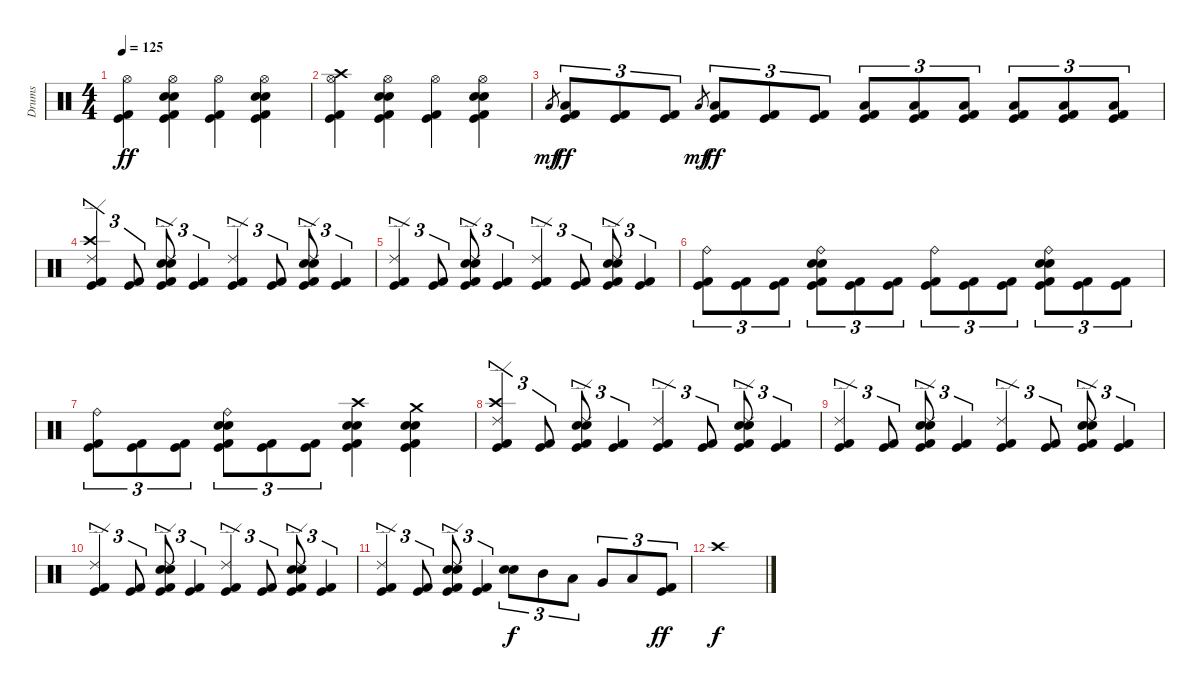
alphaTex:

\track ("Drums" "Drums") {instrument percussion}
\staff {score}
\articulation defaults
\ts (4 4)
\tempo 125
\clef neutral
\ks c
("Hi-Hat (open)" "Kick (hit) 2" "Kick (hit)").4{dy ff} ("Hi-Hat (open)" "Snare (hit) 2" "Electric Snare (hit)" "Kick (hit) 2" "Kick (hit)").4 ("Hi-Hat (open)" "Kick (hit) 2" "Kick (hit)").4 ("Hi-Hat (open)" "Snare (hit) 2" "Electric Snare (hit)" "Kick (hit) 2" "Kick (hit)").4 |
("Hi-Hat (open)" "Crash high (hit)" "Kick (hit) 2" "Kick (hit)").4 ("Hi-Hat (open)" "Snare (hit) 2" "Electric Snare (hit)" "Kick (hit) 2" "Kick (hit)").4 ("Hi-Hat (open)" "Kick (hit) 2" "Kick (hit)").4 ("Hi-Hat (open)" "Snare (hit) 2" "Electric Snare (hit)" "Kick (hit) 2" "Kick (hit)").4 |
"Low Tom (hit)".8{gr dy mf} ("Low Tom (hit)" "Kick (hit) 2" "Kick (hit)").8{tu (3 2) dy ff} ("Kick (hit) 2" "Kick (hit)").8{tu (3 2)} ("Kick (hit) 2" "Kick (hit)").8{tu (3 2)} "Low Tom (hit)".8{gr dy mf} ("Low Tom (hit)" "Kick (hit) 2" "Kick (hit)").8{tu (3 2) dy ff} ("Kick (hit) 2" "Kick (hit)").8{tu (3 2)} ("Kick (hit) 2" "Kick (hit)").8{tu (3 2)} ("Low Tom (hit)" "Kick (hit) 2" "Kick (hit)").8{tu (3 2)} ("Low Tom (hit)" "Kick (hit) 2" "Kick (hit)").8{tu (3 2)} ("Low Tom (hit)" "Kick (hit) 2" "Kick (hit)").8{tu (3 2)} ("Low Tom (hit)" "Kick (hit) 2" "Kick (hit)").8{tu (3 2)} ("Low Tom (hit)" "Kick (hit) 2" "Kick (hit)").8{tu (3 2)} ("Low Tom (hit)" "Kick (hit) 2" "Kick (hit)").8{tu (3 2)} |
("Ride (edge) 2" "Crash high (hit)" "Kick (hit) 2" "Kick (hit)").4{tu (3 2)} ("Kick (hit) 2" "Kick (hit)").8{tu (3 2)} ("Ride (edge) 2" "Snare (hit) 2" "Electric Snare (hit)" "Kick (hit) 2" "Kick (hit)").8{tu (3 2)} ("Kick (hit) 2" "Kick (hit)").4{tu (3 2)} ("Ride (edge) 2" "Kick (hit) 2" "Kick (hit)").4{tu (3 2)} ("Kick (hit) 2" "Kick (hit)").8{tu (3 2)} ("Ride (edge) 2" "Snare (hit) 2" "Electric Snare (hit)" "Kick (hit) 2" "Kick (hit)").8{tu (3 2)} ("Kick (hit) 2" "Kick (hit)").4{tu (3 2)} |
("Ride (edge) 2" "Kick (hit) 2" "Kick (hit)").4{tu (3 2)} ("Kick (hit) 2" "Kick (hit)").8{tu (3 2)} ("Ride (edge) 2" "Snare (hit) 2" "Electric Snare (hit)" "Kick (hit) 2" "Kick (hit)").8{tu (3 2)} ("Kick (hit) 2" "Kick (hit)").4{tu (3 2)} ("Ride (edge) 2" "Kick (hit) 2" "Kick (hit)").4{tu (3 2)} ("Kick (hit) 2" "Kick (hit)").8{tu (3 2)} ("Ride (edge) 2" "Snare (hit) 2" "Electric Snare (hit)" "Kick (hit) 2" "Kick (hit)").8{tu (3 2)} ("Kick (hit) 2" "Kick (hit)").4{tu (3 2)} |
("Ride (bell)" "Kick (hit) 2" "Kick (hit)").8{tu (3 2)} ("Kick (hit) 2" "Kick (hit)").8{tu (3 2)} ("Kick (hit) 2" "Kick (hit)").8{tu (3 2)} ("Ride (bell)" "Snare (hit) 2" "Electric Snare (hit)" "Kick (hit) 2" "Kick (hit)").8{tu (3 2)} ("Kick (hit) 2" "Kick (hit)").8{tu (3 2)} ("Kick (hit) 2" "Kick (hit)").8{tu (3 2)} ("Ride (bell)" "Kick (hit) 2" "Kick (hit)").8{tu (3 2)} ("Kick (hit) 2" "Kick (hit)").8{tu (3 2)} ("Kick (hit) 2" "Kick (hit)").8{tu (3 2)} ("Ride (bell)" "Snare (hit) 2" "Electric Snare (hit)" "Kick (hit) 2" "Kick (hit)").8{tu (3 2)} ("Kick (hit) 2" "Kick (hit)").8{tu (3 2)} ("Kick (hit) 2" "Kick (hit)").8{tu (3 2)} |
("Ride (bell)" "Kick (hit) 2" "Kick (hit)").8{tu (3 2)} ("Kick (hit) 2" "Kick (hit)").8{tu (3 2)} ("Kick (hit) 2" "Kick (hit)").8{tu (3 2)} ("Ride (bell)" "Snare (hit) 2" "Electric Snare (hit)" "Kick (hit) 2" "Kick (hit)").8{tu (3 2)} ("Kick (hit) 2" "Kick (hit)").8{tu (3 2)} ("Kick (hit) 2" "Kick (hit)").8{tu (3 2)} ("Crash high (hit)" "Electric Snare (hit)" "Snare (hit) 2" "Kick (hit)" "Kick (hit) 2").4 ("Crash medium (hit)" "Electric Snare (hit)" "Snare (hit) 2" "Kick (hit)" "Kick (hit) 2").4 |
("Ride (edge) 2" "Crash high (hit)" "Kick (hit) 2" "Kick (hit)").4{tu (3 2)} ("Kick (hit) 2" "Kick (hit)").8{tu (3 2)} ("Ride (edge) 2" "Snare (hit) 2" "Electric Snare (hit)" "Kick (hit) 2" "Kick (hit)").8{tu (3 2)} ("Kick (hit) 2" "Kick (hit)").4{tu (3 2)} ("Ride (edge) 2" "Kick (hit) 2" "Kick (hit)").4{tu (3 2)} ("Kick (hit) 2" "Kick (hit)").8{tu (3 2)} ("Ride (edge) 2" "Snare (hit) 2" "Electric Snare (hit)" "Kick (hit) 2" "Kick (hit)").8{tu (3 2)} ("Kick (hit) 2" "Kick (hit)").4{tu (3 2)} |
("Ride (edge) 2" "Kick (hit) 2" "Kick (hit)").4{tu (3 2)} ("Kick (hit) 2" "Kick (hit)").8{tu (3 2)} ("Ride (edge) 2" "Snare (hit) 2" "Electric Snare (hit)" "Kick (hit) 2" "Kick (hit)").8{tu (3 2)} ("Kick (hit) 2" "Kick (hit)").4{tu (3 2)} ("Ride (edge) 2" "Kick (hit) 2" "Kick (hit)").4{tu (3 2)} ("Kick (hit) 2" "Kick (hit)").8{tu (3 2)} ("Ride (edge) 2" "Snare (hit) 2" "Electric Snare (hit)" "Kick (hit) 2" "Kick (hit)").8{tu (3 2)} ("Kick (hit) 2" "Kick (hit)").4{tu (3 2)} |
("Ride (edge) 2" "Kick (hit) 2" "Kick (hit)").4{tu (3 2)} ("Kick (hit) 2" "Kick (hit)").8{tu (3 2)} ("Ride (edge) 2" "Snare (hit) 2" "Electric Snare (hit)" "Kick (hit) 2" "Kick (hit)").8{tu (3 2)} ("Kick (hit) 2" "Kick (hit)").4{tu (3 2)} ("Ride (edge) 2" "Kick (hit) 2" "Kick (hit)").4{tu (3 2)} ("Kick (hit) 2" "Kick (hit)").8{tu (3 2)} ("Ride (edge) 2" "Snare (hit) 2" "Electric Snare (hit)" "Kick (hit) 2" "Kick (hit)").8{tu (3 2)} ("Kick (hit) 2" "Kick (hit)").4{tu (3 2)} |
("Ride (edge) 2" "Kick (hit) 2" "Kick (hit)").4{tu (3 2)} ("Kick (hit) 2" "Kick (hit)").8{tu (3 2)} ("Ride (edge) 2" "Snare (hit) 2" "Electric Snare (hit)" "Kick (hit) 2" "Kick (hit)").8{tu (3 2)} ("Kick (hit) 2" "Kick (hit)").4{tu (3 2)} ("Electric Snare (hit)" "Snare (hit) 2").8{tu (3 2) dy f} "Mid Tom (hit)".8{tu (3 2)} "Low Tom (hit)".8{tu (3 2)} "Very Low Tom (hit)".8{tu (3 2)} "Low Floor Tom (hit)".8{tu (3 2)} ("Kick (hit) 2" "Kick (hit)").8{tu (3 2) dy ff} |
"Crash high (hit)".1{dy f}
